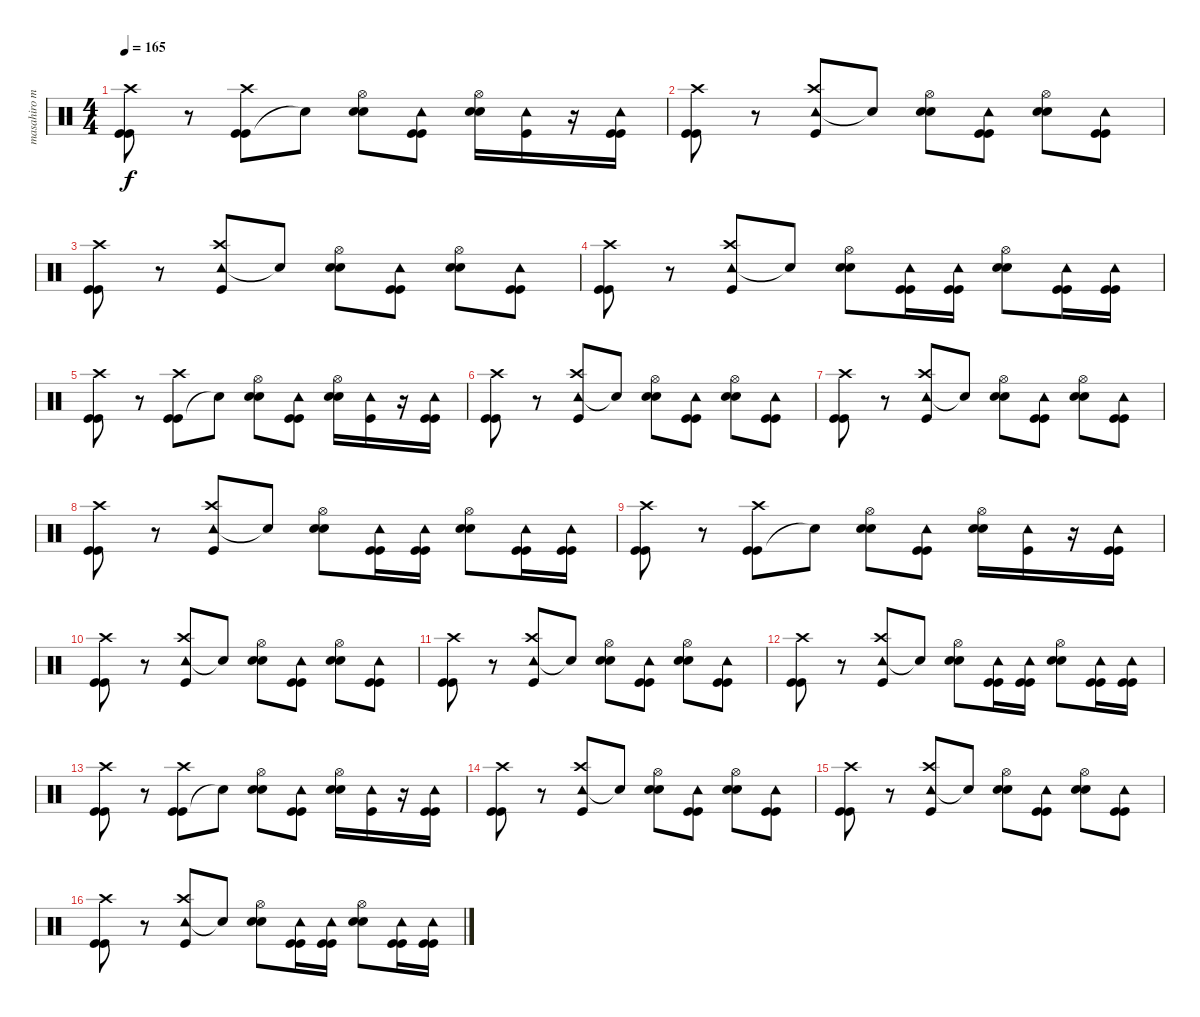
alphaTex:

\track ("masahiro muta" "masahiro m") {instrument percussion}
\staff {score}
\articulation defaults
\ts (4 4)
\tempo 165
\clef neutral
\ks c
("Kick (hit)" "Crash high (hit)" "Kick (hit)").8{dy f} r.8 ("Kick (hit)" "Crash high (hit)" "Kick (hit)").8 "Snare (hit)"{t}.8 ("Electric Snare (hit)" "Hi-Hat (open)" "Electric Snare (hit)").8 ("Kick (hit)" "Tambourine (hit)" "Kick (hit)").8 ("Electric Snare (hit)" "Hi-Hat (open)" "Electric Snare (hit)").16 ("Kick (hit)" "Tambourine (hit)").16 r.16 ("Tambourine (hit)" "Kick (hit)" "Kick (hit)").16 |
("Kick (hit)" "Kick (hit)" "Crash high (hit)").8 r.8 ("Tambourine (hit)" "Kick (hit)" "Crash high (hit)").8 "Snare (hit)"{t}.8 ("Electric Snare (hit)" "Hi-Hat (open)" "Electric Snare (hit)").8 ("Kick (hit)" "Tambourine (hit)" "Kick (hit)").8 ("Hi-Hat (open)" "Electric Snare (hit)" "Electric Snare (hit)").8 ("Kick (hit)" "Tambourine (hit)" "Kick (hit)").8 |
("Kick (hit)" "Kick (hit)" "Crash high (hit)").8 r.8 ("Tambourine (hit)" "Kick (hit)" "Crash high (hit)").8 "Snare (hit)"{t}.8 ("Electric Snare (hit)" "Hi-Hat (open)" "Electric Snare (hit)").8 ("Kick (hit)" "Tambourine (hit)" "Kick (hit)").8 ("Hi-Hat (open)" "Electric Snare (hit)" "Electric Snare (hit)").8 ("Kick (hit)" "Tambourine (hit)" "Kick (hit)").8 |
("Kick (hit)" "Kick (hit)" "Crash high (hit)").8 r.8 ("Tambourine (hit)" "Kick (hit)" "Crash high (hit)").8 "Snare (hit)"{t}.8 ("Electric Snare (hit)" "Hi-Hat (open)" "Electric Snare (hit)").8 ("Tambourine (hit)" "Kick (hit)" "Kick (hit)").16 ("Kick (hit)" "Tambourine (hit)" "Kick (hit)").16 ("Hi-Hat (open)" "Electric Snare (hit)" "Electric Snare (hit)").8 ("Kick (hit)" "Tambourine (hit)" "Kick (hit)").16 ("Kick (hit)" "Tambourine (hit)" "Kick (hit)").16 |
("Kick (hit)" "Crash high (hit)" "Kick (hit)").8 r.8 ("Kick (hit)" "Crash high (hit)" "Kick (hit)").8 "Snare (hit)"{t}.8 ("Electric Snare (hit)" "Hi-Hat (open)" "Electric Snare (hit)").8 ("Kick (hit)" "Tambourine (hit)" "Kick (hit)").8 ("Electric Snare (hit)" "Hi-Hat (open)" "Electric Snare (hit)").16 ("Kick (hit)" "Tambourine (hit)").16 r.16 ("Tambourine (hit)" "Kick (hit)" "Kick (hit)").16 |
("Kick (hit)" "Kick (hit)" "Crash high (hit)").8 r.8 ("Tambourine (hit)" "Kick (hit)" "Crash high (hit)").8 "Snare (hit)"{t}.8 ("Electric Snare (hit)" "Hi-Hat (open)" "Electric Snare (hit)").8 ("Kick (hit)" "Tambourine (hit)" "Kick (hit)").8 ("Hi-Hat (open)" "Electric Snare (hit)" "Electric Snare (hit)").8 ("Kick (hit)" "Tambourine (hit)" "Kick (hit)").8 |
("Kick (hit)" "Kick (hit)" "Crash high (hit)").8 r.8 ("Tambourine (hit)" "Kick (hit)" "Crash high (hit)").8 "Snare (hit)"{t}.8 ("Electric Snare (hit)" "Hi-Hat (open)" "Electric Snare (hit)").8 ("Kick (hit)" "Tambourine (hit)" "Kick (hit)").8 ("Hi-Hat (open)" "Electric Snare (hit)" "Electric Snare (hit)").8 ("Kick (hit)" "Tambourine (hit)" "Kick (hit)").8 |
("Kick (hit)" "Kick (hit)" "Crash high (hit)").8 r.8 ("Tambourine (hit)" "Kick (hit)" "Crash high (hit)").8 "Snare (hit)"{t}.8 ("Electric Snare (hit)" "Hi-Hat (open)" "Electric Snare (hit)").8 ("Tambourine (hit)" "Kick (hit)" "Kick (hit)").16 ("Kick (hit)" "Tambourine (hit)" "Kick (hit)").16 ("Hi-Hat (open)" "Electric Snare (hit)" "Electric Snare (hit)").8 ("Kick (hit)" "Tambourine (hit)" "Kick (hit)").16 ("Kick (hit)" "Tambourine (hit)" "Kick (hit)").16 |
("Kick (hit)" "Crash high (hit)" "Kick (hit)").8 r.8 ("Kick (hit)" "Crash high (hit)" "Kick (hit)").8 "Snare (hit)"{t}.8 ("Electric Snare (hit)" "Hi-Hat (open)" "Electric Snare (hit)").8 ("Kick (hit)" "Tambourine (hit)" "Kick (hit)").8 ("Electric Snare (hit)" "Hi-Hat (open)" "Electric Snare (hit)").16 ("Kick (hit)" "Tambourine (hit)").16 r.16 ("Tambourine (hit)" "Kick (hit)" "Kick (hit)").16 |
("Kick (hit)" "Kick (hit)" "Crash high (hit)").8 r.8 ("Tambourine (hit)" "Kick (hit)" "Crash high (hit)").8 "Snare (hit)"{t}.8 ("Electric Snare (hit)" "Hi-Hat (open)" "Electric Snare (hit)").8 ("Kick (hit)" "Tambourine (hit)" "Kick (hit)").8 ("Hi-Hat (open)" "Electric Snare (hit)" "Electric Snare (hit)").8 ("Kick (hit)" "Tambourine (hit)" "Kick (hit)").8 |
("Kick (hit)" "Kick (hit)" "Crash high (hit)").8 r.8 ("Tambourine (hit)" "Kick (hit)" "Crash high (hit)").8 "Snare (hit)"{t}.8 ("Electric Snare (hit)" "Hi-Hat (open)" "Electric Snare (hit)").8 ("Kick (hit)" "Tambourine (hit)" "Kick (hit)").8 ("Hi-Hat (open)" "Electric Snare (hit)" "Electric Snare (hit)").8 ("Kick (hit)" "Tambourine (hit)" "Kick (hit)").8 |
("Kick (hit)" "Kick (hit)" "Crash high (hit)").8 r.8 ("Tambourine (hit)" "Kick (hit)" "Crash high (hit)").8 "Snare (hit)"{t}.8 ("Electric Snare (hit)" "Hi-Hat (open)" "Electric Snare (hit)").8 ("Tambourine (hit)" "Kick (hit)" "Kick (hit)").16 ("Kick (hit)" "Tambourine (hit)" "Kick (hit)").16 ("Hi-Hat (open)" "Electric Snare (hit)" "Electric Snare (hit)").8 ("Kick (hit)" "Tambourine (hit)" "Kick (hit)").16 ("Kick (hit)" "Tambourine (hit)" "Kick (hit)").16 |
("Kick (hit)" "Crash high (hit)" "Kick (hit)").8 r.8 ("Kick (hit)" "Crash high (hit)" "Kick (hit)").8 "Snare (hit)"{t}.8 ("Electric Snare (hit)" "Hi-Hat (open)" "Electric Snare (hit)").8 ("Kick (hit)" "Tambourine (hit)" "Kick (hit)").8 ("Electric Snare (hit)" "Hi-Hat (open)" "Electric Snare (hit)").16 ("Kick (hit)" "Tambourine (hit)").16 r.16 ("Tambourine (hit)" "Kick (hit)" "Kick (hit)").16 |
("Kick (hit)" "Kick (hit)" "Crash high (hit)").8 r.8 ("Tambourine (hit)" "Kick (hit)" "Crash high (hit)").8 "Snare (hit)"{t}.8 ("Electric Snare (hit)" "Hi-Hat (open)" "Electric Snare (hit)").8 ("Kick (hit)" "Tambourine (hit)" "Kick (hit)").8 ("Hi-Hat (open)" "Electric Snare (hit)" "Electric Snare (hit)").8 ("Kick (hit)" "Tambourine (hit)" "Kick (hit)").8 |
("Kick (hit)" "Kick (hit)" "Crash high (hit)").8 r.8 ("Tambourine (hit)" "Kick (hit)" "Crash high (hit)").8 "Snare (hit)"{t}.8 ("Electric Snare (hit)" "Hi-Hat (open)" "Electric Snare (hit)").8 ("Kick (hit)" "Tambourine (hit)" "Kick (hit)").8 ("Hi-Hat (open)" "Electric Snare (hit)" "Electric Snare (hit)").8 ("Kick (hit)" "Tambourine (hit)" "Kick (hit)").8 |
("Kick (hit)" "Kick (hit)" "Crash high (hit)").8 r.8 ("Tambourine (hit)" "Kick (hit)" "Crash high (hit)").8 "Snare (hit)"{t}.8 ("Electric Snare (hit)" "Hi-Hat (open)" "Electric Snare (hit)").8 ("Tambourine (hit)" "Kick (hit)" "Kick (hit)").16 ("Kick (hit)" "Tambourine (hit)" "Kick (hit)").16 ("Hi-Hat (open)" "Electric Snare (hit)" "Electric Snare (hit)").8 ("Kick (hit)" "Tambourine (hit)" "Kick (hit)").16 ("Kick (hit)" "Tambourine (hit)" "Kick (hit)").16
